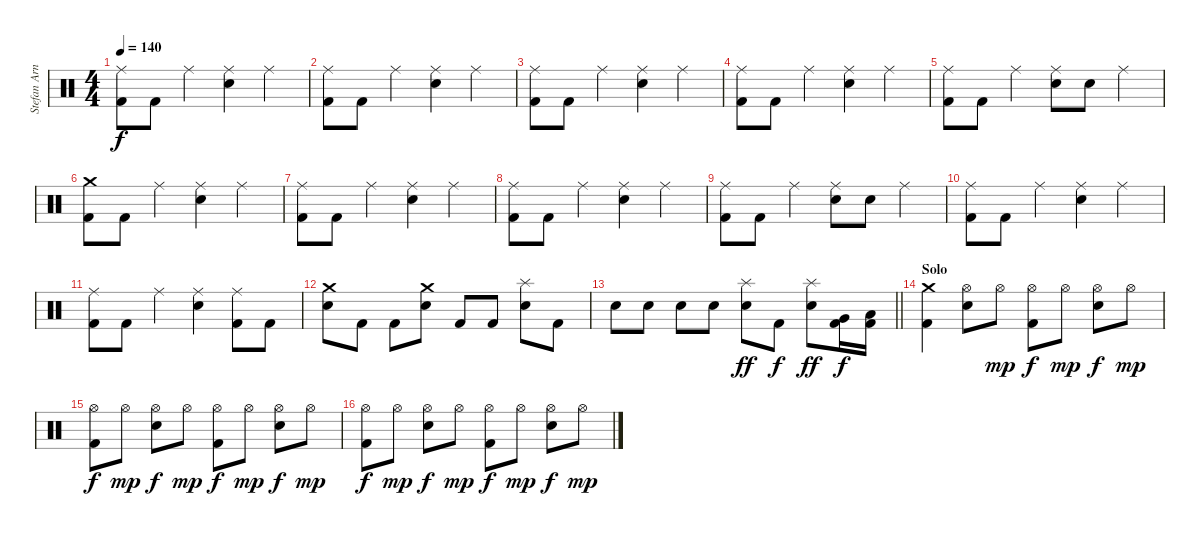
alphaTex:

\track ("Stefan Arnold" "Stefan Arn") {instrument percussion}
\staff {score}
\articulation defaults
\ts (4 4)
\tempo 140
\clef neutral
\ks c
("Ride (middle)" "Kick (hit) 2").8{dy f} "Kick (hit) 2".8 "Ride (middle)".4 ("Ride (middle)" "Electric Snare (hit)").4 "Ride (middle)".4 |
("Ride (middle)" "Kick (hit) 2").8 "Kick (hit) 2".8 "Ride (middle)".4 ("Ride (middle)" "Electric Snare (hit)").4 "Ride (middle)".4 |
("Ride (middle)" "Kick (hit) 2").8 "Kick (hit) 2".8 "Ride (middle)".4 ("Ride (middle)" "Electric Snare (hit)").4 "Ride (middle)".4 |
("Ride (middle)" "Kick (hit) 2").8 "Kick (hit) 2".8 "Ride (middle)".4 ("Ride (middle)" "Electric Snare (hit)").4 "Ride (middle)".4 |
("Ride (middle)" "Kick (hit) 2").8 "Kick (hit) 2".8 "Ride (middle)".4 ("Ride (middle)" "Electric Snare (hit)").8 "Electric Snare (hit)".8 "Ride (middle)".4 |
("Crash medium (hit)" "Kick (hit) 2").8 "Kick (hit) 2".8 "Ride (middle)".4 ("Ride (middle)" "Electric Snare (hit)").4 "Ride (middle)".4 |
("Ride (middle)" "Kick (hit) 2").8 "Kick (hit) 2".8 "Ride (middle)".4 ("Ride (middle)" "Electric Snare (hit)").4 "Ride (middle)".4 |
("Ride (middle)" "Kick (hit) 2").8 "Kick (hit) 2".8 "Ride (middle)".4 ("Ride (middle)" "Electric Snare (hit)").4 "Ride (middle)".4 |
("Ride (middle)" "Kick (hit) 2").8 "Kick (hit) 2".8 "Ride (middle)".4 ("Ride (middle)" "Electric Snare (hit)").8 "Electric Snare (hit)".8 "Ride (middle)".4 |
("Ride (middle)" "Kick (hit) 2").8 "Kick (hit) 2".8 "Ride (middle)".4 ("Ride (middle)" "Electric Snare (hit)").4 "Ride (middle)".4 |
("Ride (middle)" "Kick (hit) 2").8 "Kick (hit) 2".8 "Ride (middle)".4 ("Ride (middle)" "Electric Snare (hit)").4 ("Ride (middle)" "Kick (hit) 2").8 "Kick (hit) 2".8 |
("Crash medium (hit)" "Electric Snare (hit)").8 "Kick (hit) 2".8 "Kick (hit) 2".8 ("Crash medium (hit)" "Electric Snare (hit)").8 "Kick (hit) 2".8 "Kick (hit) 2".8 ("Splash (hit)" "Electric Snare (hit)").8 "Kick (hit) 2".8 |
\barLineRight lightlight "Electric Snare (hit)".8 "Electric Snare (hit)".8 "Electric Snare (hit)".8 "Electric Snare (hit)".8
("Splash (hit)" "Electric Snare (hit)").8{dy ff} "Kick (hit) 2".8{dy f} ("Splash (hit)" "Electric Snare (hit)").8{dy ff} ("Very Low Tom (hit)" "Kick (hit) 2").16{dy f} ("Low Floor Tom (hit)" "Kick (hit) 2").16 |
\section ("" "Solo")
("Crash medium (hit)" "Kick (hit) 2").4 ("Hi-Hat (open)" "Electric Snare (hit)").8 "Hi-Hat (open)".8{dy mp} ("Hi-Hat (open)" "Kick (hit) 2").8{dy f} "Hi-Hat (open)".8{dy mp} ("Hi-Hat (open)" "Electric Snare (hit)").8{dy f} "Hi-Hat (open)".8{dy mp} |
("Hi-Hat (open)" "Kick (hit) 2").8{dy f} "Hi-Hat (open)".8{dy mp} ("Hi-Hat (open)" "Electric Snare (hit)").8{dy f} "Hi-Hat (open)".8{dy mp} ("Hi-Hat (open)" "Kick (hit) 2").8{dy f} "Hi-Hat (open)".8{dy mp} ("Hi-Hat (open)" "Electric Snare (hit)").8{dy f} "Hi-Hat (open)".8{dy mp} |
("Hi-Hat (open)" "Kick (hit) 2").8{dy f} "Hi-Hat (open)".8{dy mp} ("Hi-Hat (open)" "Electric Snare (hit)").8{dy f} "Hi-Hat (open)".8{dy mp} ("Hi-Hat (open)" "Kick (hit) 2").8{dy f} "Hi-Hat (open)".8{dy mp} ("Hi-Hat (open)" "Electric Snare (hit)").8{dy f} "Hi-Hat (open)".8{dy mp}
